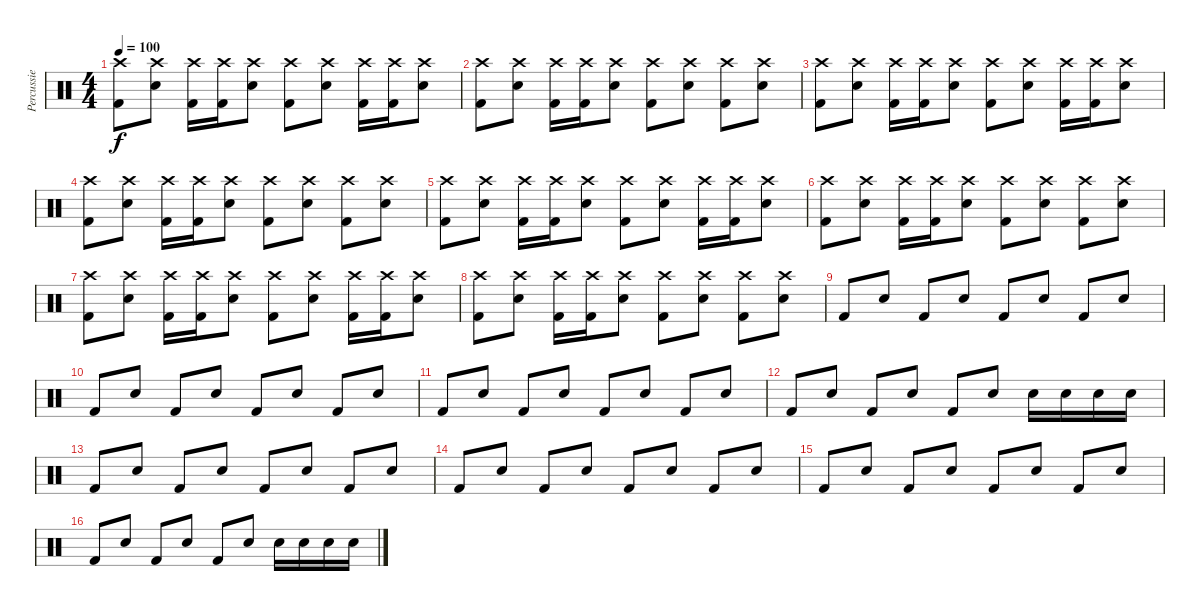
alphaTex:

\track ("Percussie" "Percussie") {instrument percussion}
\staff {score}
\articulation defaults
\ts (4 4)
\tempo 100
\clef neutral
\ks c
("Crash high (hit)" "Kick (hit) 2").8{dy f} ("Crash high (hit)" "Electric Snare (hit)").8 ("Crash high (hit)" "Kick (hit) 2").16 ("Crash high (hit)" "Kick (hit) 2").16 ("Crash high (hit)" "Electric Snare (hit)").8 ("Crash high (hit)" "Kick (hit) 2").8 ("Crash high (hit)" "Electric Snare (hit)").8 ("Crash high (hit)" "Kick (hit) 2").16 ("Crash high (hit)" "Kick (hit) 2").16 ("Crash high (hit)" "Electric Snare (hit)").8 |
("Crash high (hit)" "Kick (hit) 2").8 ("Crash high (hit)" "Electric Snare (hit)").8 ("Crash high (hit)" "Kick (hit) 2").16 ("Crash high (hit)" "Kick (hit) 2").16 ("Crash high (hit)" "Electric Snare (hit)").8 ("Crash high (hit)" "Kick (hit) 2").8 ("Crash high (hit)" "Electric Snare (hit)").8 ("Crash high (hit)" "Kick (hit) 2").8 ("Crash high (hit)" "Electric Snare (hit)").8 |
("Crash high (hit)" "Kick (hit) 2").8 ("Crash high (hit)" "Electric Snare (hit)").8 ("Crash high (hit)" "Kick (hit) 2").16 ("Crash high (hit)" "Kick (hit) 2").16 ("Crash high (hit)" "Electric Snare (hit)").8 ("Crash high (hit)" "Kick (hit) 2").8 ("Crash high (hit)" "Electric Snare (hit)").8 ("Crash high (hit)" "Kick (hit) 2").16 ("Crash high (hit)" "Kick (hit) 2").16 ("Crash high (hit)" "Electric Snare (hit)").8 |
("Crash high (hit)" "Kick (hit) 2").8 ("Crash high (hit)" "Electric Snare (hit)").8 ("Crash high (hit)" "Kick (hit) 2").16 ("Crash high (hit)" "Kick (hit) 2").16 ("Crash high (hit)" "Electric Snare (hit)").8 ("Crash high (hit)" "Kick (hit) 2").8 ("Crash high (hit)" "Electric Snare (hit)").8 ("Crash high (hit)" "Kick (hit) 2").8 ("Crash high (hit)" "Electric Snare (hit)").8 |
("Crash high (hit)" "Kick (hit) 2").8 ("Crash high (hit)" "Electric Snare (hit)").8 ("Crash high (hit)" "Kick (hit) 2").16 ("Crash high (hit)" "Kick (hit) 2").16 ("Crash high (hit)" "Electric Snare (hit)").8 ("Crash high (hit)" "Kick (hit) 2").8 ("Crash high (hit)" "Electric Snare (hit)").8 ("Crash high (hit)" "Kick (hit) 2").16 ("Crash high (hit)" "Kick (hit) 2").16 ("Crash high (hit)" "Electric Snare (hit)").8 |
("Crash high (hit)" "Kick (hit) 2").8 ("Crash high (hit)" "Electric Snare (hit)").8 ("Crash high (hit)" "Kick (hit) 2").16 ("Crash high (hit)" "Kick (hit) 2").16 ("Crash high (hit)" "Electric Snare (hit)").8 ("Crash high (hit)" "Kick (hit) 2").8 ("Crash high (hit)" "Electric Snare (hit)").8 ("Crash high (hit)" "Kick (hit) 2").8 ("Crash high (hit)" "Electric Snare (hit)").8 |
("Crash high (hit)" "Kick (hit) 2").8 ("Crash high (hit)" "Electric Snare (hit)").8 ("Crash high (hit)" "Kick (hit) 2").16 ("Crash high (hit)" "Kick (hit) 2").16 ("Crash high (hit)" "Electric Snare (hit)").8 ("Crash high (hit)" "Kick (hit) 2").8 ("Crash high (hit)" "Electric Snare (hit)").8 ("Crash high (hit)" "Kick (hit) 2").16 ("Crash high (hit)" "Kick (hit) 2").16 ("Crash high (hit)" "Electric Snare (hit)").8 |
("Crash high (hit)" "Kick (hit) 2").8 ("Crash high (hit)" "Electric Snare (hit)").8 ("Crash high (hit)" "Kick (hit) 2").16 ("Crash high (hit)" "Kick (hit) 2").16 ("Crash high (hit)" "Electric Snare (hit)").8 ("Crash high (hit)" "Kick (hit) 2").8 ("Crash high (hit)" "Electric Snare (hit)").8 ("Crash high (hit)" "Kick (hit) 2").8 ("Crash high (hit)" "Electric Snare (hit)").8 |
"Kick (hit) 2".8 "Electric Snare (hit)".8 "Kick (hit) 2".8 "Electric Snare (hit)".8 "Kick (hit) 2".8 "Electric Snare (hit)".8 "Kick (hit) 2".8 "Electric Snare (hit)".8 |
"Kick (hit) 2".8 "Electric Snare (hit)".8 "Kick (hit) 2".8 "Electric Snare (hit)".8 "Kick (hit) 2".8 "Electric Snare (hit)".8 "Kick (hit) 2".8 "Electric Snare (hit)".8 |
"Kick (hit) 2".8 "Electric Snare (hit)".8 "Kick (hit) 2".8 "Electric Snare (hit)".8 "Kick (hit) 2".8 "Electric Snare (hit)".8 "Kick (hit) 2".8 "Electric Snare (hit)".8 |
"Kick (hit) 2".8 "Electric Snare (hit)".8 "Kick (hit) 2".8 "Electric Snare (hit)".8 "Kick (hit) 2".8 "Electric Snare (hit)".8 "Electric Snare (hit)".16 "Electric Snare (hit)".16 "Electric Snare (hit)".16 "Electric Snare (hit)".16 |
"Kick (hit) 2".8 "Electric Snare (hit)".8 "Kick (hit) 2".8 "Electric Snare (hit)".8 "Kick (hit) 2".8 "Electric Snare (hit)".8 "Kick (hit) 2".8 "Electric Snare (hit)".8 |
"Kick (hit) 2".8 "Electric Snare (hit)".8 "Kick (hit) 2".8 "Electric Snare (hit)".8 "Kick (hit) 2".8 "Electric Snare (hit)".8 "Kick (hit) 2".8 "Electric Snare (hit)".8 |
"Kick (hit) 2".8 "Electric Snare (hit)".8 "Kick (hit) 2".8 "Electric Snare (hit)".8 "Kick (hit) 2".8 "Electric Snare (hit)".8 "Kick (hit) 2".8 "Electric Snare (hit)".8 |
"Kick (hit) 2".8 "Electric Snare (hit)".8 "Kick (hit) 2".8 "Electric Snare (hit)".8 "Kick (hit) 2".8 "Electric Snare (hit)".8 "Electric Snare (hit)".16 "Electric Snare (hit)".16 "Electric Snare (hit)".16 "Electric Snare (hit)".16
